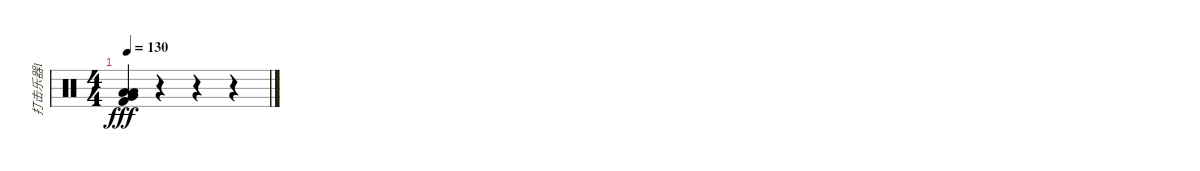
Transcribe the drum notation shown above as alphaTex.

\track ("打击乐器1" "打击乐器1") {instrument percussion}
\staff {score}
\articulation defaults
\ts (4 4)
\tempo 130
\clef neutral
\ks c
("Low Floor Tom (hit)" "Very Low Tom (hit)" "Low Tom (hit)" "Kick (hit) 2").4{dy fff} r.4 r.4 r.4
